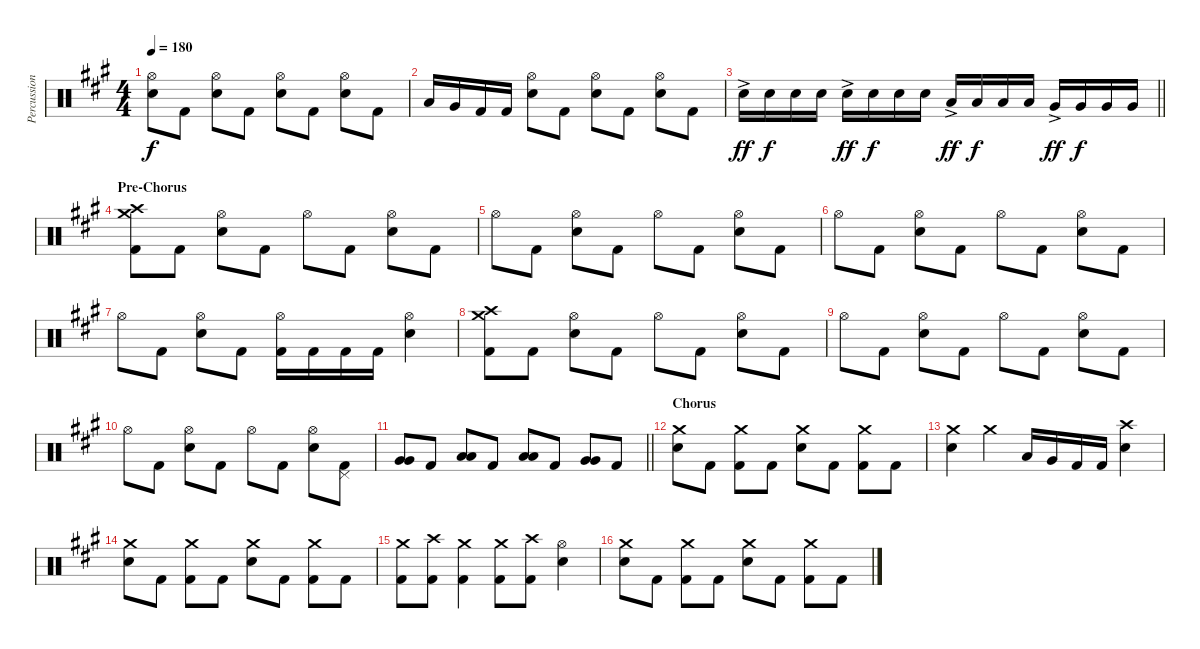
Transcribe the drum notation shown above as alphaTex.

\track ("Percussion" "Percussion") {instrument percussion}
\staff {score}
\articulation defaults
\ts (4 4)
\tempo 180
\clef neutral
\ks f#minor
("Hi-Hat (open)" "Electric Snare (hit)").8{dy f} "Kick (hit) 2".8 ("Hi-Hat (open)" "Electric Snare (hit)").8 "Kick (hit) 2".8 ("Hi-Hat (open)" "Electric Snare (hit)").8 "Kick (hit) 2".8 ("Hi-Hat (open)" "Electric Snare (hit)").8 "Kick (hit) 2".8 |
"Low Tom (hit)".16 "Very Low Tom (hit)".16 "Kick (hit) 2".16 "Kick (hit) 2".16 ("Hi-Hat (open)" "Electric Snare (hit)").8 "Kick (hit) 2".8 ("Hi-Hat (open)" "Electric Snare (hit)").8 "Kick (hit) 2".8 ("Hi-Hat (open)" "Electric Snare (hit)").8 "Kick (hit) 2".8 |
\barLineRight lightlight "Electric Snare (hit)"{ac}.16{dy ff} "Electric Snare (hit)".16{dy f} "Electric Snare (hit)".16 "Electric Snare (hit)".16 "Electric Snare (hit)"{ac}.16{dy ff} "Electric Snare (hit)".16{dy f} "Electric Snare (hit)".16 "Electric Snare (hit)".16 "Low Tom (hit)"{ac}.16{dy ff} "Low Tom (hit)".16{dy f} "Low Tom (hit)".16 "Low Tom (hit)".16 "Very Low Tom (hit)"{ac}.16{dy ff} "Very Low Tom (hit)".16{dy f} "Very Low Tom (hit)".16 "Very Low Tom (hit)".16
|
\section ("" "Pre-Chorus")
("Crash medium (hit)" "Crash high (hit)" "Kick (hit) 2").8 "Kick (hit) 2".8 ("Hi-Hat (open)" "Electric Snare (hit)").8 "Kick (hit) 2".8 "Hi-Hat (open)".8 "Kick (hit) 2".8 ("Hi-Hat (open)" "Electric Snare (hit)").8 "Kick (hit) 2".8 |
"Hi-Hat (open)".8 "Kick (hit) 2".8 ("Hi-Hat (open)" "Electric Snare (hit)").8 "Kick (hit) 2".8 "Hi-Hat (open)".8 "Kick (hit) 2".8 ("Hi-Hat (open)" "Electric Snare (hit)").8 "Kick (hit) 2".8 |
"Hi-Hat (open)".8 "Kick (hit) 2".8 ("Hi-Hat (open)" "Electric Snare (hit)").8 "Kick (hit) 2".8 "Hi-Hat (open)".8 "Kick (hit) 2".8 ("Hi-Hat (open)" "Electric Snare (hit)").8 "Kick (hit) 2".8 |
"Hi-Hat (open)".8 "Kick (hit) 2".8 ("Hi-Hat (open)" "Electric Snare (hit)").8 "Kick (hit) 2".8 ("Hi-Hat (open)" "Kick (hit) 2").16 "Kick (hit) 2".16 "Kick (hit) 2".16 "Kick (hit) 2".16 ("Hi-Hat (open)" "Electric Snare (hit)").4 |
("Crash medium (hit)" "Crash high (hit)" "Kick (hit) 2").8 "Kick (hit) 2".8 ("Hi-Hat (open)" "Electric Snare (hit)").8 "Kick (hit) 2".8 "Hi-Hat (open)".8 "Kick (hit) 2".8 ("Hi-Hat (open)" "Electric Snare (hit)").8 "Kick (hit) 2".8 |
"Hi-Hat (open)".8 "Kick (hit) 2".8 ("Hi-Hat (open)" "Electric Snare (hit)").8 "Kick (hit) 2".8 "Hi-Hat (open)".8 "Kick (hit) 2".8 ("Hi-Hat (open)" "Electric Snare (hit)").8 "Kick (hit) 2".8 |
"Hi-Hat (open)".8 "Kick (hit) 2".8 ("Hi-Hat (open)" "Electric Snare (hit)").8 "Kick (hit) 2".8 "Hi-Hat (open)".8 "Kick (hit) 2".8 ("Hi-Hat (open)" "Electric Snare (hit)").8 ("Pedal Hi-Hat (hit)" "Kick (hit) 2").8 |
\barLineRight lightlight
("Very Low Tom (hit)" "Very Low Tom (hit)").8 "Kick (hit) 2".8 ("Low Floor Tom (hit)" "Low Floor Tom (hit)").8 "Kick (hit) 2".8 ("Low Tom (hit)" "Low Tom (hit)").8 "Kick (hit) 2".8 ("Very Low Tom (hit)" "Very Low Tom (hit)").8 "Kick (hit) 2".8 |
\section ("" "Chorus")
("Crash medium (hit)" "Electric Snare (hit)").8 "Kick (hit) 2".8 ("Crash medium (hit)" "Kick (hit) 2").8 "Kick (hit) 2".8 ("Crash medium (hit)" "Electric Snare (hit)").8 "Kick (hit) 2".8 ("Crash medium (hit)" "Kick (hit) 2").8 "Kick (hit) 2".8 |
("Crash medium (hit)" "Electric Snare (hit)").4 "Crash medium (hit)".4 "Low Tom (hit)".16 "Very Low Tom (hit)".16 "Kick (hit) 2".16 "Kick (hit) 2".16 ("Crash high (hit)" "Electric Snare (hit)").4 |
("Crash medium (hit)" "Electric Snare (hit)").8 "Kick (hit) 2".8 ("Crash medium (hit)" "Kick (hit) 2").8 "Kick (hit) 2".8 ("Crash medium (hit)" "Electric Snare (hit)").8 "Kick (hit) 2".8 ("Crash medium (hit)" "Kick (hit) 2").8 "Kick (hit) 2".8 |
("Crash medium (hit)" "Kick (hit) 2").8 ("Crash high (hit)" "Kick (hit) 2").8 ("Crash medium (hit)" "Kick (hit) 2").4 ("Crash medium (hit)" "Kick (hit) 2").8 ("Crash high (hit)" "Kick (hit) 2").8 ("Hi-Hat (open)" "Electric Snare (hit)").4 |
("Crash medium (hit)" "Electric Snare (hit)").8 "Kick (hit) 2".8 ("Crash medium (hit)" "Kick (hit) 2").8 "Kick (hit) 2".8 ("Crash medium (hit)" "Electric Snare (hit)").8 "Kick (hit) 2".8 ("Crash medium (hit)" "Kick (hit) 2").8 "Kick (hit) 2".8
